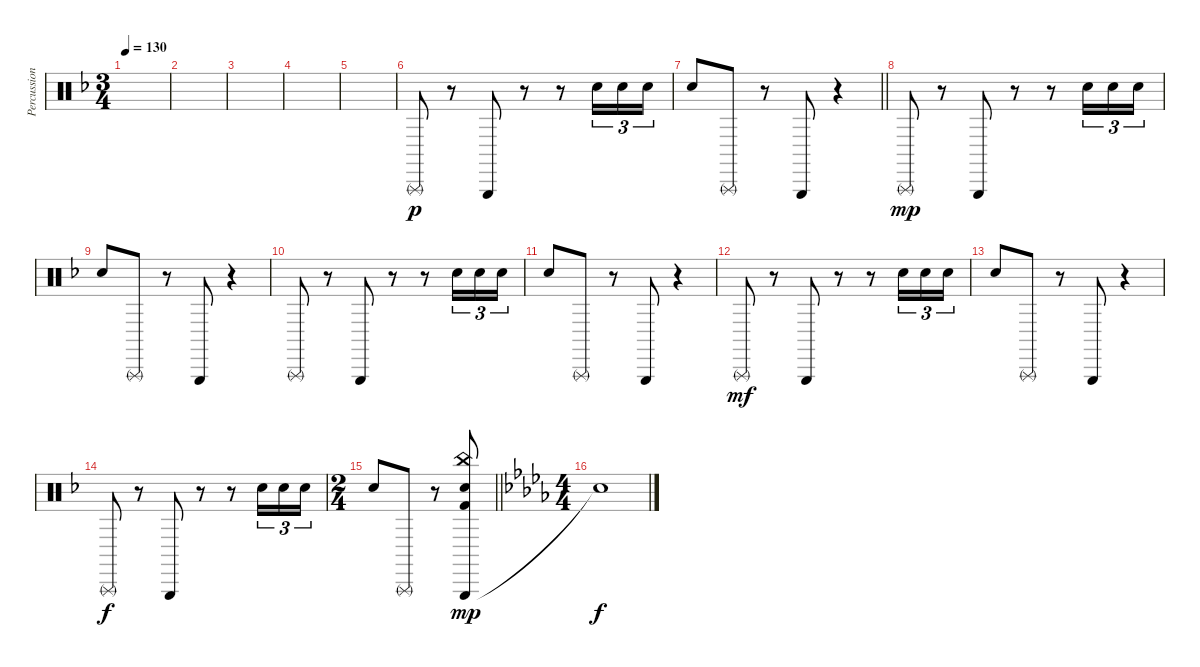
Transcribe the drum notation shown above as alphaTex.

\track ("Percussions" "Percussion") {instrument percussion}
\staff {score}
\articulation defaults
\ts (3 4)
\tempo 130
\clef neutral
\ks dminor
|
|
|
|
|
"Triangle (rnute)".8{dy p} r.8 "Triangle (hit)".8 r.8 r.8 "Snare (hit) 2".16{tu (3 2)} "Snare (hit) 2".16{tu (3 2)} "Snare (hit) 2".16{tu (3 2)} |
\barLineRight lightlight "Snare (hit) 2".8 "Triangle (rnute)".8
r.8 "Triangle (hit)".8 r.4 |
"Triangle (rnute)".8{dy mp} r.8 "Triangle (hit)".8 r.8 r.8 "Snare (hit) 2".16{tu (3 2)} "Snare (hit) 2".16{tu (3 2)} "Snare (hit) 2".16{tu (3 2)} |
"Snare (hit) 2".8 "Triangle (rnute)".8 r.8 "Triangle (hit)".8 r.4 |
"Triangle (rnute)".8 r.8 "Triangle (hit)".8 r.8 r.8 "Snare (hit) 2".16{tu (3 2)} "Snare (hit) 2".16{tu (3 2)} "Snare (hit) 2".16{tu (3 2)} |
"Snare (hit) 2".8 "Triangle (rnute)".8 r.8 "Triangle (hit)".8 r.4 |
"Triangle (rnute)".8{dy mf} r.8 "Triangle (hit)".8 r.8 r.8 "Snare (hit) 2".16{tu (3 2)} "Snare (hit) 2".16{tu (3 2)} "Snare (hit) 2".16{tu (3 2)} |
"Snare (hit) 2".8 "Triangle (rnute)".8 r.8 "Triangle (hit)".8 r.4 |
"Triangle (rnute)".8{dy f} r.8 "Triangle (hit)".8 r.8 r.8 "Snare (hit) 2".16{tu (3 2)} "Snare (hit) 2".16{tu (3 2)} "Snare (hit) 2".16{tu (3 2)} |
\ts (2 4)
\barLineRight lightlight "Snare (hit) 2".8 "Triangle (rnute)".8
r.8 ("Triangle (hit)" "Kick (hit) 2" "Snare (hit) 2" "China (hit)").8{dy mp} |
\ts (4 4)
\ks db "Snare (hit)"{t}.1{dy f}
